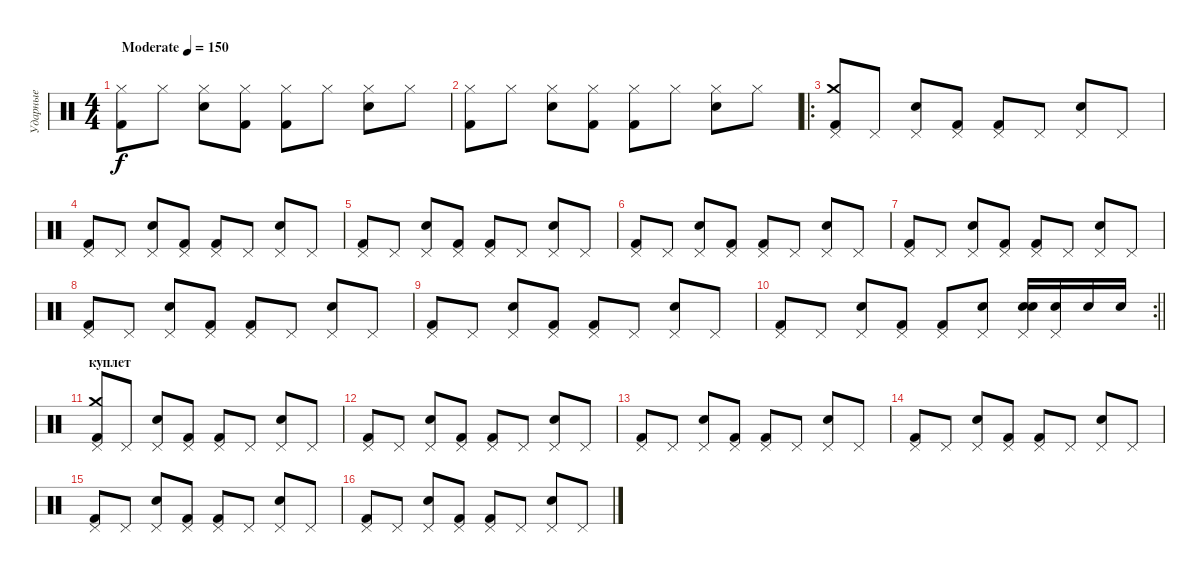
\track ("Ударные" "Ударные") {instrument percussion}
\staff {score}
\articulation defaults
\ts (4 4)
\tempo (150 "Moderate")
\clef neutral
\ks c
("Hi-Hat (closed)" "Kick (hit) 2").8{dy f} "Hi-Hat (closed)".8 ("Hi-Hat (closed)" "Electric Snare (hit)").8 ("Hi-Hat (closed)" "Kick (hit) 2").8 ("Hi-Hat (closed)" "Kick (hit) 2").8 "Hi-Hat (closed)".8 ("Hi-Hat (closed)" "Electric Snare (hit)").8 "Hi-Hat (closed)".8 |
("Hi-Hat (closed)" "Kick (hit) 2").8 "Hi-Hat (closed)".8 ("Hi-Hat (closed)" "Electric Snare (hit)").8 ("Hi-Hat (closed)" "Kick (hit) 2").8 ("Hi-Hat (closed)" "Kick (hit) 2").8 "Hi-Hat (closed)".8 ("Hi-Hat (closed)" "Electric Snare (hit)").8 "Hi-Hat (closed)".8 |
\ro
("Crash medium (hit)" "Pedal Hi-Hat (hit)" "Kick (hit) 2").8 "Pedal Hi-Hat (hit)".8 ("Pedal Hi-Hat (hit)" "Electric Snare (hit)").8 ("Pedal Hi-Hat (hit)" "Kick (hit) 2").8 ("Pedal Hi-Hat (hit)" "Kick (hit) 2").8 "Pedal Hi-Hat (hit)".8 ("Pedal Hi-Hat (hit)" "Electric Snare (hit)").8 "Pedal Hi-Hat (hit)".8 |
("Pedal Hi-Hat (hit)" "Kick (hit) 2").8 "Pedal Hi-Hat (hit)".8 ("Pedal Hi-Hat (hit)" "Electric Snare (hit)").8 ("Pedal Hi-Hat (hit)" "Kick (hit) 2").8 ("Pedal Hi-Hat (hit)" "Kick (hit) 2").8 "Pedal Hi-Hat (hit)".8 ("Pedal Hi-Hat (hit)" "Electric Snare (hit)").8 "Pedal Hi-Hat (hit)".8 |
("Pedal Hi-Hat (hit)" "Kick (hit) 2").8 "Pedal Hi-Hat (hit)".8 ("Pedal Hi-Hat (hit)" "Electric Snare (hit)").8 ("Pedal Hi-Hat (hit)" "Kick (hit) 2").8 ("Pedal Hi-Hat (hit)" "Kick (hit) 2").8 "Pedal Hi-Hat (hit)".8 ("Pedal Hi-Hat (hit)" "Electric Snare (hit)").8 "Pedal Hi-Hat (hit)".8 |
("Pedal Hi-Hat (hit)" "Kick (hit) 2").8 "Pedal Hi-Hat (hit)".8 ("Pedal Hi-Hat (hit)" "Electric Snare (hit)").8 ("Pedal Hi-Hat (hit)" "Kick (hit) 2").8 ("Pedal Hi-Hat (hit)" "Kick (hit) 2").8 "Pedal Hi-Hat (hit)".8 ("Pedal Hi-Hat (hit)" "Electric Snare (hit)").8 "Pedal Hi-Hat (hit)".8 |
("Pedal Hi-Hat (hit)" "Kick (hit) 2").8 "Pedal Hi-Hat (hit)".8 ("Pedal Hi-Hat (hit)" "Electric Snare (hit)").8 ("Pedal Hi-Hat (hit)" "Kick (hit) 2").8 ("Pedal Hi-Hat (hit)" "Kick (hit) 2").8 "Pedal Hi-Hat (hit)".8 ("Pedal Hi-Hat (hit)" "Electric Snare (hit)").8 "Pedal Hi-Hat (hit)".8 |
("Pedal Hi-Hat (hit)" "Kick (hit) 2").8 "Pedal Hi-Hat (hit)".8 ("Pedal Hi-Hat (hit)" "Electric Snare (hit)").8 ("Pedal Hi-Hat (hit)" "Kick (hit) 2").8 ("Pedal Hi-Hat (hit)" "Kick (hit) 2").8 "Pedal Hi-Hat (hit)".8 ("Pedal Hi-Hat (hit)" "Electric Snare (hit)").8 "Pedal Hi-Hat (hit)".8 |
("Pedal Hi-Hat (hit)" "Kick (hit) 2").8 "Pedal Hi-Hat (hit)".8 ("Pedal Hi-Hat (hit)" "Electric Snare (hit)").8 ("Pedal Hi-Hat (hit)" "Kick (hit) 2").8 ("Pedal Hi-Hat (hit)" "Kick (hit) 2").8 "Pedal Hi-Hat (hit)".8 ("Pedal Hi-Hat (hit)" "Electric Snare (hit)").8 "Pedal Hi-Hat (hit)".8 |
\rc 2
\barLineRight lightlight
("Pedal Hi-Hat (hit)" "Kick (hit) 2").8 "Pedal Hi-Hat (hit)".8 ("Pedal Hi-Hat (hit)" "Electric Snare (hit)").8 ("Pedal Hi-Hat (hit)" "Kick (hit) 2").8 ("Pedal Hi-Hat (hit)" "Kick (hit) 2").8 ("Pedal Hi-Hat (hit)" "Electric Snare (hit)").8 ("Electric Snare (hit)" "Pedal Hi-Hat (hit)" "Electric Snare (hit)").16 ("Electric Snare (hit)" "Pedal Hi-Hat (hit)").16 "Electric Snare (hit)".16 "Electric Snare (hit)".16 |
\section ("" "куплет")
("Crash medium (hit)" "Pedal Hi-Hat (hit)" "Kick (hit) 2").8 "Pedal Hi-Hat (hit)".8 ("Pedal Hi-Hat (hit)" "Electric Snare (hit)").8 ("Pedal Hi-Hat (hit)" "Kick (hit) 2").8 ("Pedal Hi-Hat (hit)" "Kick (hit) 2").8 "Pedal Hi-Hat (hit)".8 ("Pedal Hi-Hat (hit)" "Electric Snare (hit)").8 "Pedal Hi-Hat (hit)".8 |
("Pedal Hi-Hat (hit)" "Kick (hit) 2").8 "Pedal Hi-Hat (hit)".8 ("Pedal Hi-Hat (hit)" "Electric Snare (hit)").8 ("Pedal Hi-Hat (hit)" "Kick (hit) 2").8 ("Pedal Hi-Hat (hit)" "Kick (hit) 2").8 "Pedal Hi-Hat (hit)".8 ("Pedal Hi-Hat (hit)" "Electric Snare (hit)").8 "Pedal Hi-Hat (hit)".8 |
("Pedal Hi-Hat (hit)" "Kick (hit) 2").8 "Pedal Hi-Hat (hit)".8 ("Pedal Hi-Hat (hit)" "Electric Snare (hit)").8 ("Pedal Hi-Hat (hit)" "Kick (hit) 2").8 ("Pedal Hi-Hat (hit)" "Kick (hit) 2").8 "Pedal Hi-Hat (hit)".8 ("Pedal Hi-Hat (hit)" "Electric Snare (hit)").8 "Pedal Hi-Hat (hit)".8 |
("Pedal Hi-Hat (hit)" "Kick (hit) 2").8 "Pedal Hi-Hat (hit)".8 ("Pedal Hi-Hat (hit)" "Electric Snare (hit)").8 ("Pedal Hi-Hat (hit)" "Kick (hit) 2").8 ("Pedal Hi-Hat (hit)" "Kick (hit) 2").8 "Pedal Hi-Hat (hit)".8 ("Pedal Hi-Hat (hit)" "Electric Snare (hit)").8 "Pedal Hi-Hat (hit)".8 |
("Pedal Hi-Hat (hit)" "Kick (hit) 2").8 "Pedal Hi-Hat (hit)".8 ("Pedal Hi-Hat (hit)" "Electric Snare (hit)").8 ("Pedal Hi-Hat (hit)" "Kick (hit) 2").8 ("Pedal Hi-Hat (hit)" "Kick (hit) 2").8 "Pedal Hi-Hat (hit)".8 ("Pedal Hi-Hat (hit)" "Electric Snare (hit)").8 "Pedal Hi-Hat (hit)".8 |
("Pedal Hi-Hat (hit)" "Kick (hit) 2").8 "Pedal Hi-Hat (hit)".8 ("Pedal Hi-Hat (hit)" "Electric Snare (hit)").8 ("Pedal Hi-Hat (hit)" "Kick (hit) 2").8 ("Pedal Hi-Hat (hit)" "Kick (hit) 2").8 "Pedal Hi-Hat (hit)".8 ("Pedal Hi-Hat (hit)" "Electric Snare (hit)").8 "Pedal Hi-Hat (hit)".8
